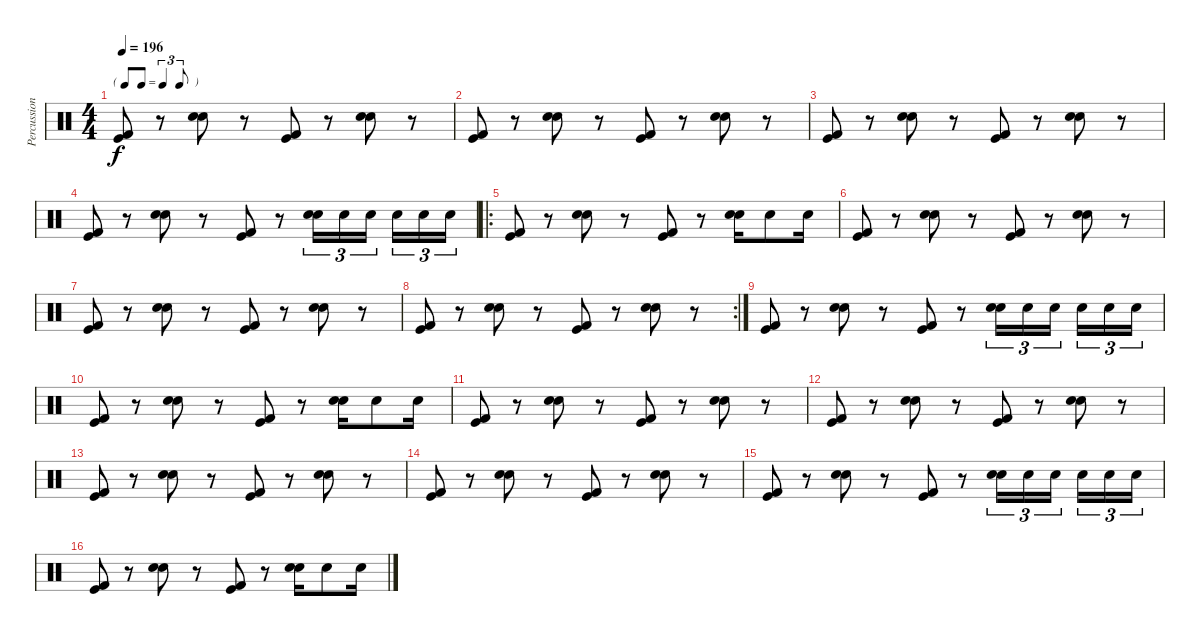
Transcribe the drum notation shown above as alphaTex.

\track ("Percussions" "Percussion") {instrument percussion}
\staff {score}
\articulation defaults
\ts (4 4)
\tf triplet8th
\tempo 196
\clef neutral
\ks c
("Kick (hit) 2" "Kick (hit)").8{dy f} r.8 ("Snare (hit) 2" "Electric Snare (hit)").8 r.8 ("Kick (hit) 2" "Kick (hit)").8 r.8 ("Snare (hit) 2" "Electric Snare (hit)").8 r.8 |
("Kick (hit) 2" "Kick (hit)").8 r.8 ("Snare (hit) 2" "Electric Snare (hit)").8 r.8 ("Kick (hit) 2" "Kick (hit)").8 r.8 ("Snare (hit) 2" "Electric Snare (hit)").8 r.8 |
("Kick (hit) 2" "Kick (hit)").8 r.8 ("Snare (hit) 2" "Electric Snare (hit)").8 r.8 ("Kick (hit) 2" "Kick (hit)").8 r.8 ("Snare (hit) 2" "Electric Snare (hit)").8 r.8 |
("Kick (hit) 2" "Kick (hit)").8 r.8 ("Snare (hit) 2" "Electric Snare (hit)").8 r.8 ("Kick (hit) 2" "Kick (hit)").8 r.8 ("Hand Clap (hit)" "Electric Snare (hit)").16{tu (3 2)} "Hand Clap (hit)".16{tu (3 2)} "Hand Clap (hit)".16{tu (3 2)} "Hand Clap (hit)".16{tu (3 2)} "Hand Clap (hit)".16{tu (3 2)} "Hand Clap (hit)".16{tu (3 2)} |
\ro
("Kick (hit) 2" "Kick (hit)").8 r.8 ("Snare (hit) 2" "Electric Snare (hit)").8 r.8 ("Kick (hit) 2" "Kick (hit)").8 r.8 ("Snare (hit) 2" "Electric Snare (hit)").16 "Hand Clap (hit)".8 "Hand Clap (hit)".16 |
("Kick (hit) 2" "Kick (hit)").8 r.8 ("Snare (hit) 2" "Electric Snare (hit)").8 r.8 ("Kick (hit) 2" "Kick (hit)").8 r.8 ("Snare (hit) 2" "Electric Snare (hit)").8 r.8 |
("Kick (hit) 2" "Kick (hit)").8 r.8 ("Snare (hit) 2" "Electric Snare (hit)").8 r.8 ("Kick (hit) 2" "Kick (hit)").8 r.8 ("Snare (hit) 2" "Electric Snare (hit)").8 r.8 |
\rc 2
("Kick (hit) 2" "Kick (hit)").8 r.8 ("Snare (hit) 2" "Electric Snare (hit)").8 r.8 ("Kick (hit) 2" "Kick (hit)").8 r.8 ("Snare (hit) 2" "Electric Snare (hit)").8 r.8 |
("Kick (hit) 2" "Kick (hit)").8 r.8 ("Snare (hit) 2" "Electric Snare (hit)").8 r.8 ("Kick (hit) 2" "Kick (hit)").8 r.8 ("Hand Clap (hit)" "Electric Snare (hit)").16{tu (3 2)} "Hand Clap (hit)".16{tu (3 2)} "Hand Clap (hit)".16{tu (3 2)} "Hand Clap (hit)".16{tu (3 2)} "Hand Clap (hit)".16{tu (3 2)} "Hand Clap (hit)".16{tu (3 2)} |
("Kick (hit) 2" "Kick (hit)").8 r.8 ("Snare (hit) 2" "Electric Snare (hit)").8 r.8 ("Kick (hit) 2" "Kick (hit)").8 r.8 ("Snare (hit) 2" "Electric Snare (hit)").16 "Hand Clap (hit)".8 "Hand Clap (hit)".16 |
("Kick (hit) 2" "Kick (hit)").8 r.8 ("Snare (hit) 2" "Electric Snare (hit)").8 r.8 ("Kick (hit) 2" "Kick (hit)").8 r.8 ("Snare (hit) 2" "Electric Snare (hit)").8 r.8 |
("Kick (hit) 2" "Kick (hit)").8 r.8 ("Snare (hit) 2" "Electric Snare (hit)").8 r.8 ("Kick (hit) 2" "Kick (hit)").8 r.8 ("Snare (hit) 2" "Electric Snare (hit)").8 r.8 |
("Kick (hit) 2" "Kick (hit)").8 r.8 ("Snare (hit) 2" "Electric Snare (hit)").8 r.8 ("Kick (hit) 2" "Kick (hit)").8 r.8 ("Snare (hit) 2" "Electric Snare (hit)").8 r.8 |
("Kick (hit) 2" "Kick (hit)").8 r.8 ("Snare (hit) 2" "Electric Snare (hit)").8 r.8 ("Kick (hit) 2" "Kick (hit)").8 r.8 ("Snare (hit) 2" "Electric Snare (hit)").8 r.8 |
("Kick (hit) 2" "Kick (hit)").8 r.8 ("Snare (hit) 2" "Electric Snare (hit)").8 r.8 ("Kick (hit) 2" "Kick (hit)").8 r.8 ("Hand Clap (hit)" "Electric Snare (hit)").16{tu (3 2)} "Hand Clap (hit)".16{tu (3 2)} "Hand Clap (hit)".16{tu (3 2)} "Hand Clap (hit)".16{tu (3 2)} "Hand Clap (hit)".16{tu (3 2)} "Hand Clap (hit)".16{tu (3 2)} |
("Kick (hit) 2" "Kick (hit)").8 r.8 ("Snare (hit) 2" "Electric Snare (hit)").8 r.8 ("Kick (hit) 2" "Kick (hit)").8 r.8 ("Snare (hit) 2" "Electric Snare (hit)").16 "Hand Clap (hit)".8 "Hand Clap (hit)".16
